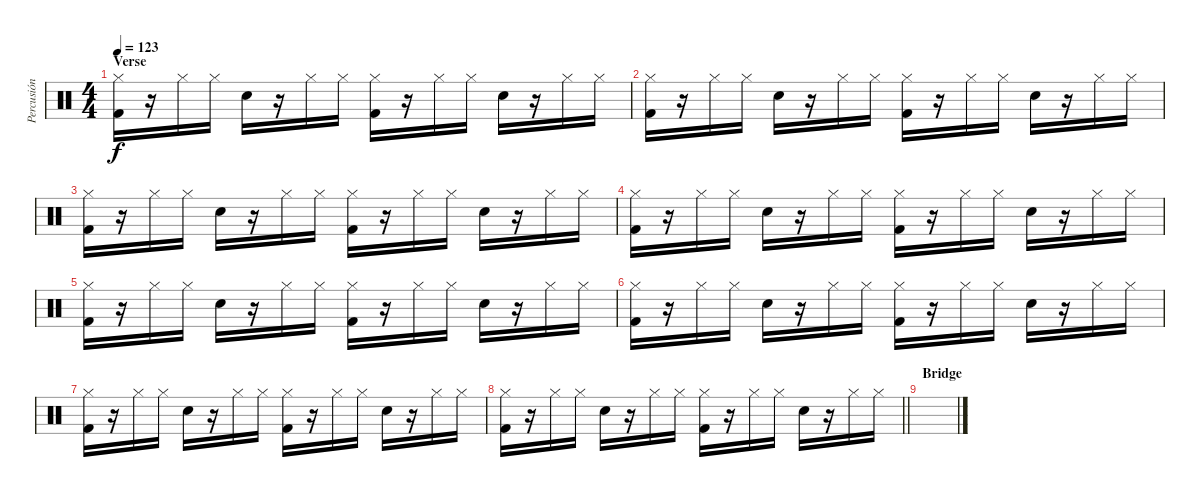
\track ("Percusión" "Percusión") {instrument percussion}
\staff {score}
\articulation defaults
\ts (4 4)
\section ("" "Verse")
\tempo 123
\clef neutral
\ks c
("Hi-Hat (closed)" "Kick (hit) 2").16{dy f} r.16 "Hi-Hat (closed)".16 "Hi-Hat (closed)".16 "Snare (hit) 2".16 r.16 "Hi-Hat (closed)".16 "Hi-Hat (closed)".16 ("Hi-Hat (closed)" "Kick (hit) 2").16 r.16 "Hi-Hat (closed)".16 "Hi-Hat (closed)".16 "Snare (hit) 2".16 r.16 "Hi-Hat (closed)".16 "Hi-Hat (closed)".16 |
("Hi-Hat (closed)" "Kick (hit) 2").16 r.16 "Hi-Hat (closed)".16 "Hi-Hat (closed)".16 "Snare (hit) 2".16 r.16 "Hi-Hat (closed)".16 "Hi-Hat (closed)".16 ("Hi-Hat (closed)" "Kick (hit) 2").16 r.16 "Hi-Hat (closed)".16 "Hi-Hat (closed)".16 "Snare (hit) 2".16 r.16 "Hi-Hat (closed)".16 "Hi-Hat (closed)".16 |
("Hi-Hat (closed)" "Kick (hit) 2").16 r.16 "Hi-Hat (closed)".16 "Hi-Hat (closed)".16 "Snare (hit) 2".16 r.16 "Hi-Hat (closed)".16 "Hi-Hat (closed)".16 ("Hi-Hat (closed)" "Kick (hit) 2").16 r.16 "Hi-Hat (closed)".16 "Hi-Hat (closed)".16 "Snare (hit) 2".16 r.16 "Hi-Hat (closed)".16 "Hi-Hat (closed)".16 |
("Hi-Hat (closed)" "Kick (hit) 2").16 r.16 "Hi-Hat (closed)".16 "Hi-Hat (closed)".16 "Snare (hit) 2".16 r.16 "Hi-Hat (closed)".16 "Hi-Hat (closed)".16 ("Hi-Hat (closed)" "Kick (hit) 2").16 r.16 "Hi-Hat (closed)".16 "Hi-Hat (closed)".16 "Snare (hit) 2".16 r.16 "Hi-Hat (closed)".16 "Hi-Hat (closed)".16 |
("Hi-Hat (closed)" "Kick (hit) 2").16 r.16 "Hi-Hat (closed)".16 "Hi-Hat (closed)".16 "Snare (hit) 2".16 r.16 "Hi-Hat (closed)".16 "Hi-Hat (closed)".16 ("Hi-Hat (closed)" "Kick (hit) 2").16 r.16 "Hi-Hat (closed)".16 "Hi-Hat (closed)".16 "Snare (hit) 2".16 r.16 "Hi-Hat (closed)".16 "Hi-Hat (closed)".16 |
("Hi-Hat (closed)" "Kick (hit) 2").16 r.16 "Hi-Hat (closed)".16 "Hi-Hat (closed)".16 "Snare (hit) 2".16 r.16 "Hi-Hat (closed)".16 "Hi-Hat (closed)".16 ("Hi-Hat (closed)" "Kick (hit) 2").16 r.16 "Hi-Hat (closed)".16 "Hi-Hat (closed)".16 "Snare (hit) 2".16 r.16 "Hi-Hat (closed)".16 "Hi-Hat (closed)".16 |
("Hi-Hat (closed)" "Kick (hit) 2").16 r.16 "Hi-Hat (closed)".16 "Hi-Hat (closed)".16 "Snare (hit) 2".16 r.16 "Hi-Hat (closed)".16 "Hi-Hat (closed)".16 ("Hi-Hat (closed)" "Kick (hit) 2").16 r.16 "Hi-Hat (closed)".16 "Hi-Hat (closed)".16 "Snare (hit) 2".16 r.16 "Hi-Hat (closed)".16 "Hi-Hat (closed)".16 |
\barLineRight lightlight
("Hi-Hat (closed)" "Kick (hit) 2").16 r.16 "Hi-Hat (closed)".16 "Hi-Hat (closed)".16 "Snare (hit) 2".16 r.16 "Hi-Hat (closed)".16 "Hi-Hat (closed)".16 ("Hi-Hat (closed)" "Kick (hit) 2").16 r.16 "Hi-Hat (closed)".16 "Hi-Hat (closed)".16 "Snare (hit) 2".16 r.16 "Hi-Hat (closed)".16 "Hi-Hat (closed)".16 |
\section ("" "Bridge")
